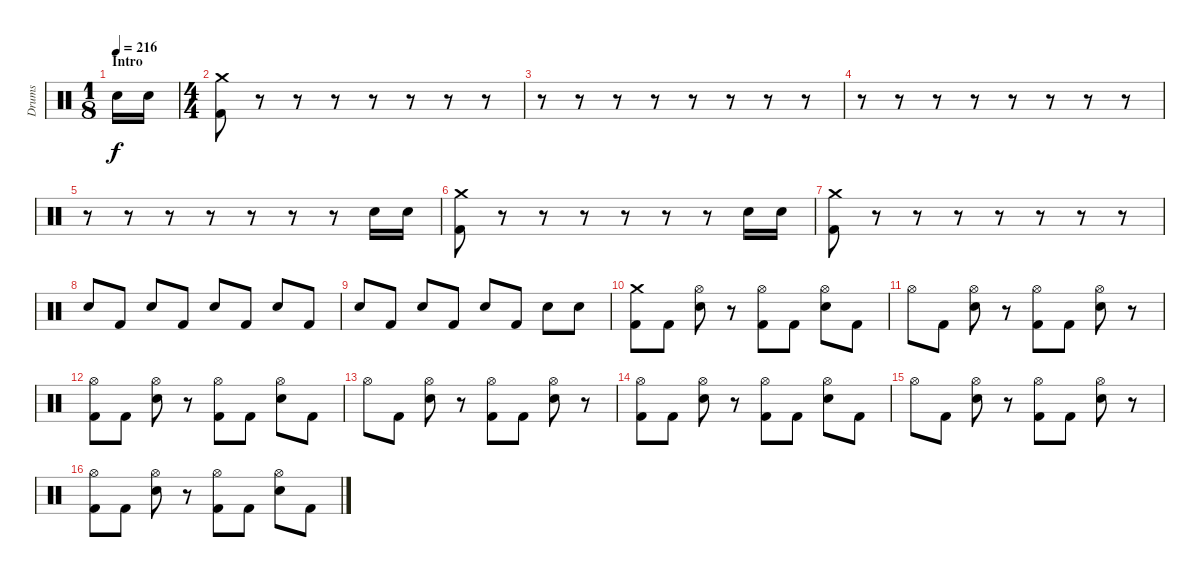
\track ("Drums" "Drums") {instrument percussion}
\staff {score}
\articulation defaults
\ts (1 8)
\section ("" "Intro")
\tempo 216
\clef neutral
\ks c "Electric Snare (hit)".16{dy f} "Electric Snare (hit)".16
|
\ts (4 4)
("Crash medium (hit)" "Kick (hit) 2").8 r.8 r.8 r.8 r.8 r.8 r.8 r.8 |
r.8 r.8 r.8 r.8 r.8 r.8 r.8 r.8 |
r.8 r.8 r.8 r.8 r.8 r.8 r.8 r.8 |
r.8 r.8 r.8 r.8 r.8 r.8 r.8 "Electric Snare (hit)".16 "Electric Snare (hit)".16 |
("Crash medium (hit)" "Kick (hit) 2").8 r.8 r.8 r.8 r.8 r.8 r.8 "Electric Snare (hit)".16 "Electric Snare (hit)".16 |
("Crash medium (hit)" "Kick (hit) 2").8 r.8 r.8 r.8 r.8 r.8 r.8 r.8 |
"Electric Snare (hit)".8 "Kick (hit) 2".8 "Electric Snare (hit)".8 "Kick (hit) 2".8 "Electric Snare (hit)".8 "Kick (hit) 2".8 "Electric Snare (hit)".8 "Kick (hit) 2".8 |
"Electric Snare (hit)".8 "Kick (hit) 2".8 "Electric Snare (hit)".8 "Kick (hit) 2".8 "Electric Snare (hit)".8 "Kick (hit) 2".8 "Electric Snare (hit)".8 "Electric Snare (hit)".8 |
("Crash medium (hit)" "Kick (hit) 2").8 "Kick (hit) 2".8 ("Hi-Hat (open)" "Electric Snare (hit)").8 r.8 ("Hi-Hat (open)" "Kick (hit) 2").8 "Kick (hit) 2".8 ("Hi-Hat (open)" "Electric Snare (hit)").8 "Kick (hit) 2".8 |
"Hi-Hat (open)".8 "Kick (hit) 2".8 ("Hi-Hat (open)" "Electric Snare (hit)").8 r.8 ("Hi-Hat (open)" "Kick (hit) 2").8 "Kick (hit) 2".8 ("Hi-Hat (open)" "Electric Snare (hit)").8 r.8 |
("Hi-Hat (open)" "Kick (hit) 2").8 "Kick (hit) 2".8 ("Hi-Hat (open)" "Electric Snare (hit)").8 r.8 ("Hi-Hat (open)" "Kick (hit) 2").8 "Kick (hit) 2".8 ("Hi-Hat (open)" "Electric Snare (hit)").8 "Kick (hit) 2".8 |
"Hi-Hat (open)".8 "Kick (hit) 2".8 ("Hi-Hat (open)" "Electric Snare (hit)").8 r.8 ("Hi-Hat (open)" "Kick (hit) 2").8 "Kick (hit) 2".8 ("Hi-Hat (open)" "Electric Snare (hit)").8 r.8 |
("Hi-Hat (open)" "Kick (hit) 2").8 "Kick (hit) 2".8 ("Hi-Hat (open)" "Electric Snare (hit)").8 r.8 ("Hi-Hat (open)" "Kick (hit) 2").8 "Kick (hit) 2".8 ("Hi-Hat (open)" "Electric Snare (hit)").8 "Kick (hit) 2".8 |
"Hi-Hat (open)".8 "Kick (hit) 2".8 ("Hi-Hat (open)" "Electric Snare (hit)").8 r.8 ("Hi-Hat (open)" "Kick (hit) 2").8 "Kick (hit) 2".8 ("Hi-Hat (open)" "Electric Snare (hit)").8 r.8 |
("Hi-Hat (open)" "Kick (hit) 2").8 "Kick (hit) 2".8 ("Hi-Hat (open)" "Electric Snare (hit)").8 r.8 ("Hi-Hat (open)" "Kick (hit) 2").8 "Kick (hit) 2".8 ("Hi-Hat (open)" "Electric Snare (hit)").8 "Kick (hit) 2".8
